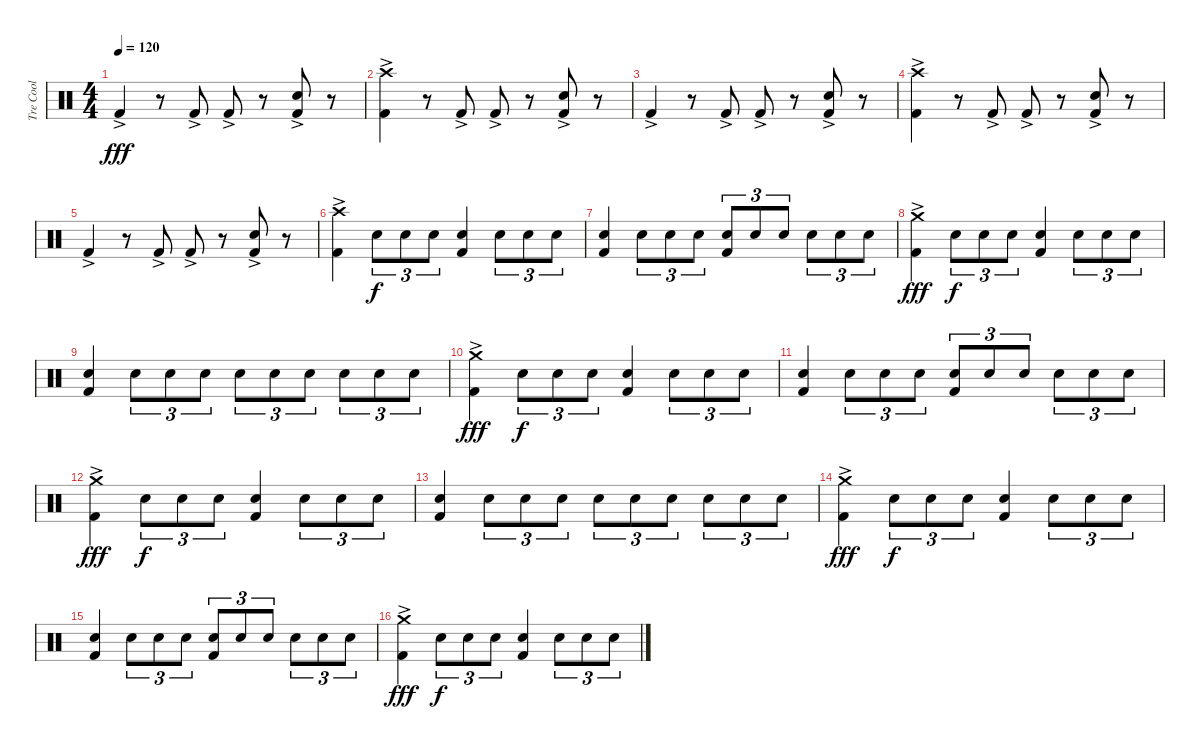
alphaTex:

\track ("Tre Cool" "Tre Cool") {instrument percussion}
\staff {score}
\articulation defaults
\ts (4 4)
\tempo 120
\clef neutral
\ks c "Kick (hit) 2"{ac}.4{dy fff}
r.8 "Kick (hit) 2"{ac}.8 "Kick (hit) 2"{ac}.8 r.8 ("Electric Snare (hit)"{ac} "Kick (hit) 2"{ac}).8 r.8 |
("Crash high (hit)" "Kick (hit) 2"{ac}).4 r.8 "Kick (hit) 2"{ac}.8 "Kick (hit) 2"{ac}.8 r.8 ("Electric Snare (hit)"{ac} "Kick (hit) 2"{ac}).8 r.8 |
"Kick (hit) 2"{ac}.4 r.8 "Kick (hit) 2"{ac}.8 "Kick (hit) 2"{ac}.8 r.8 ("Electric Snare (hit)"{ac} "Kick (hit) 2"{ac}).8 r.8 |
("Crash high (hit)" "Kick (hit) 2"{ac}).4 r.8 "Kick (hit) 2"{ac}.8 "Kick (hit) 2"{ac}.8 r.8 ("Electric Snare (hit)"{ac} "Kick (hit) 2"{ac}).8 r.8 |
"Kick (hit) 2"{ac}.4 r.8 "Kick (hit) 2"{ac}.8 "Kick (hit) 2"{ac}.8 r.8 ("Electric Snare (hit)"{ac} "Kick (hit) 2"{ac}).8 r.8 |
("Crash high (hit)"{ac} "Kick (hit) 2"{ac}).4 "Electric Snare (hit)".8{tu (3 2) dy f} "Electric Snare (hit)".8{tu (3 2)} "Electric Snare (hit)".8{tu (3 2)} ("Electric Snare (hit)" "Kick (hit) 2").4 "Electric Snare (hit)".8{tu (3 2)} "Electric Snare (hit)".8{tu (3 2)} "Electric Snare (hit)".8{tu (3 2)} |
("Electric Snare (hit)" "Kick (hit) 2").4 "Electric Snare (hit)".8{tu (3 2)} "Electric Snare (hit)".8{tu (3 2)} "Electric Snare (hit)".8{tu (3 2)} ("Electric Snare (hit)" "Kick (hit) 2").8{tu (3 2)} "Electric Snare (hit)".8{tu (3 2)} "Electric Snare (hit)".8{tu (3 2)} "Electric Snare (hit)".8{tu (3 2)} "Electric Snare (hit)".8{tu (3 2)} "Electric Snare (hit)".8{tu (3 2)} |
("Crash medium (hit)" "Kick (hit) 2"{ac}).4{dy fff} "Electric Snare (hit)".8{tu (3 2) dy f} "Electric Snare (hit)".8{tu (3 2)} "Electric Snare (hit)".8{tu (3 2)} ("Electric Snare (hit)" "Kick (hit) 2").4 "Electric Snare (hit)".8{tu (3 2)} "Electric Snare (hit)".8{tu (3 2)} "Electric Snare (hit)".8{tu (3 2)} |
("Electric Snare (hit)" "Kick (hit) 2").4 "Electric Snare (hit)".8{tu (3 2)} "Electric Snare (hit)".8{tu (3 2)} "Electric Snare (hit)".8{tu (3 2)} "Electric Snare (hit)".8{tu (3 2)} "Electric Snare (hit)".8{tu (3 2)} "Electric Snare (hit)".8{tu (3 2)} "Electric Snare (hit)".8{tu (3 2)} "Electric Snare (hit)".8{tu (3 2)} "Electric Snare (hit)".8{tu (3 2)} |
("Crash medium (hit)" "Kick (hit) 2"{ac}).4{dy fff} "Electric Snare (hit)".8{tu (3 2) dy f} "Electric Snare (hit)".8{tu (3 2)} "Electric Snare (hit)".8{tu (3 2)} ("Electric Snare (hit)" "Kick (hit) 2").4 "Electric Snare (hit)".8{tu (3 2)} "Electric Snare (hit)".8{tu (3 2)} "Electric Snare (hit)".8{tu (3 2)} |
("Electric Snare (hit)" "Kick (hit) 2").4 "Electric Snare (hit)".8{tu (3 2)} "Electric Snare (hit)".8{tu (3 2)} "Electric Snare (hit)".8{tu (3 2)} ("Electric Snare (hit)" "Kick (hit) 2").8{tu (3 2)} "Electric Snare (hit)".8{tu (3 2)} "Electric Snare (hit)".8{tu (3 2)} "Electric Snare (hit)".8{tu (3 2)} "Electric Snare (hit)".8{tu (3 2)} "Electric Snare (hit)".8{tu (3 2)} |
("Crash medium (hit)" "Kick (hit) 2"{ac}).4{dy fff} "Electric Snare (hit)".8{tu (3 2) dy f} "Electric Snare (hit)".8{tu (3 2)} "Electric Snare (hit)".8{tu (3 2)} ("Electric Snare (hit)" "Kick (hit) 2").4 "Electric Snare (hit)".8{tu (3 2)} "Electric Snare (hit)".8{tu (3 2)} "Electric Snare (hit)".8{tu (3 2)} |
("Electric Snare (hit)" "Kick (hit) 2").4 "Electric Snare (hit)".8{tu (3 2)} "Electric Snare (hit)".8{tu (3 2)} "Electric Snare (hit)".8{tu (3 2)} "Electric Snare (hit)".8{tu (3 2)} "Electric Snare (hit)".8{tu (3 2)} "Electric Snare (hit)".8{tu (3 2)} "Electric Snare (hit)".8{tu (3 2)} "Electric Snare (hit)".8{tu (3 2)} "Electric Snare (hit)".8{tu (3 2)} |
("Crash medium (hit)" "Kick (hit) 2"{ac}).4{dy fff} "Electric Snare (hit)".8{tu (3 2) dy f} "Electric Snare (hit)".8{tu (3 2)} "Electric Snare (hit)".8{tu (3 2)} ("Electric Snare (hit)" "Kick (hit) 2").4 "Electric Snare (hit)".8{tu (3 2)} "Electric Snare (hit)".8{tu (3 2)} "Electric Snare (hit)".8{tu (3 2)} |
("Electric Snare (hit)" "Kick (hit) 2").4 "Electric Snare (hit)".8{tu (3 2)} "Electric Snare (hit)".8{tu (3 2)} "Electric Snare (hit)".8{tu (3 2)} ("Electric Snare (hit)" "Kick (hit) 2").8{tu (3 2)} "Electric Snare (hit)".8{tu (3 2)} "Electric Snare (hit)".8{tu (3 2)} "Electric Snare (hit)".8{tu (3 2)} "Electric Snare (hit)".8{tu (3 2)} "Electric Snare (hit)".8{tu (3 2)} |
("Crash medium (hit)" "Kick (hit) 2"{ac}).4{dy fff} "Electric Snare (hit)".8{tu (3 2) dy f} "Electric Snare (hit)".8{tu (3 2)} "Electric Snare (hit)".8{tu (3 2)} ("Electric Snare (hit)" "Kick (hit) 2").4 "Electric Snare (hit)".8{tu (3 2)} "Electric Snare (hit)".8{tu (3 2)} "Electric Snare (hit)".8{tu (3 2)}
